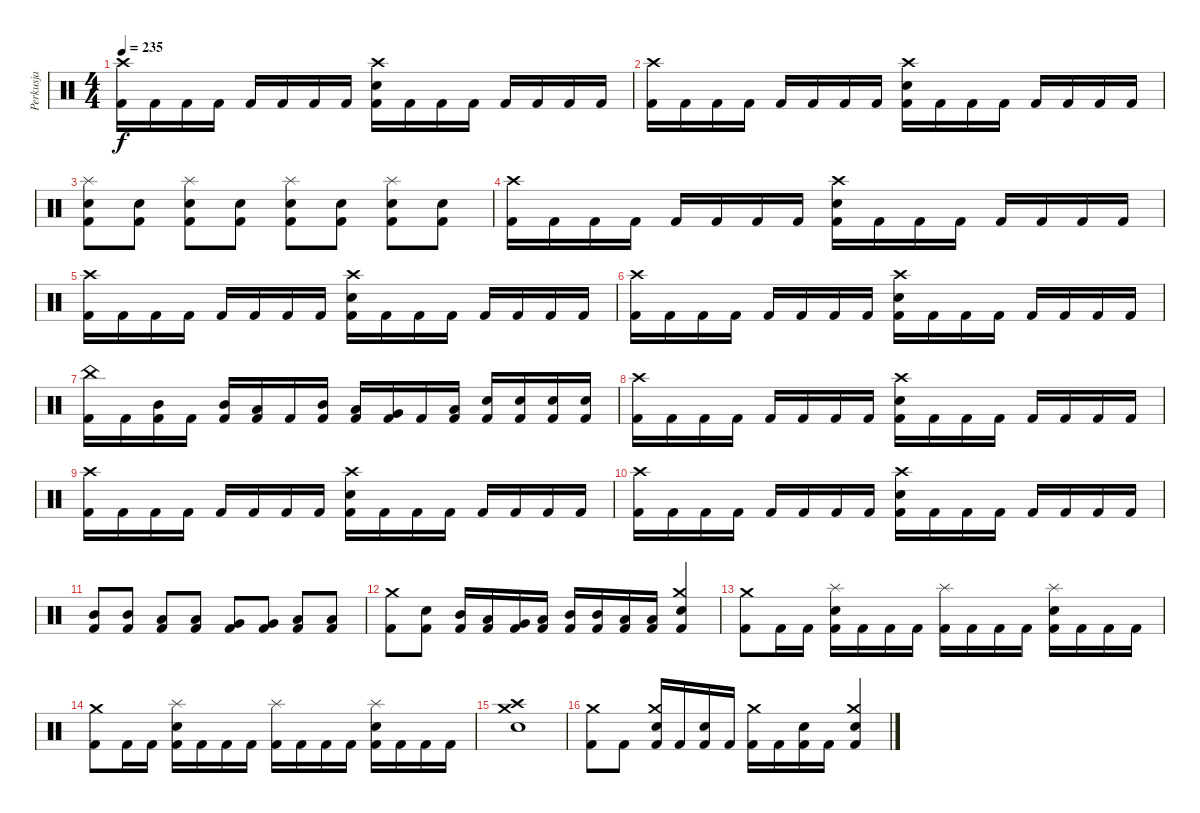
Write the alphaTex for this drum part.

\track ("Perkusja" "Perkusja") {instrument percussion}
\staff {score}
\articulation defaults
\ts (4 4)
\tempo 235
\clef neutral
\ks c
("Crash high (hit)" "Kick (hit) 2").16{dy f} "Kick (hit) 2".16 "Kick (hit) 2".16 "Kick (hit) 2".16 "Kick (hit) 2".16 "Kick (hit) 2".16 "Kick (hit) 2".16 "Kick (hit) 2".16 ("Crash high (hit)" "Snare (hit) 2" "Kick (hit) 2").16 "Kick (hit) 2".16 "Kick (hit) 2".16 "Kick (hit) 2".16 "Kick (hit) 2".16 "Kick (hit) 2".16 "Kick (hit) 2".16 "Kick (hit) 2".16 |
("Crash high (hit)" "Kick (hit) 2").16 "Kick (hit) 2".16 "Kick (hit) 2".16 "Kick (hit) 2".16 "Kick (hit) 2".16 "Kick (hit) 2".16 "Kick (hit) 2".16 "Kick (hit) 2".16 ("Crash high (hit)" "Snare (hit) 2" "Kick (hit) 2").16 "Kick (hit) 2".16 "Kick (hit) 2".16 "Kick (hit) 2".16 "Kick (hit) 2".16 "Kick (hit) 2".16 "Kick (hit) 2".16 "Kick (hit) 2".16 |
("Splash (hit)" "Snare (hit) 2" "Kick (hit) 2").8 ("Snare (hit) 2" "Kick (hit) 2").8 ("Splash (hit)" "Snare (hit) 2" "Kick (hit) 2").8 ("Snare (hit) 2" "Kick (hit) 2").8 ("Splash (hit)" "Snare (hit) 2" "Kick (hit) 2").8 ("Snare (hit) 2" "Kick (hit) 2").8 ("Splash (hit)" "Snare (hit) 2" "Kick (hit) 2").8 ("Snare (hit) 2" "Kick (hit) 2").8 |
("Crash high (hit)" "Kick (hit) 2").16 "Kick (hit) 2".16 "Kick (hit) 2".16 "Kick (hit) 2".16 "Kick (hit) 2".16 "Kick (hit) 2".16 "Kick (hit) 2".16 "Kick (hit) 2".16 ("Crash high (hit)" "Snare (hit) 2" "Kick (hit) 2").16 "Kick (hit) 2".16 "Kick (hit) 2".16 "Kick (hit) 2".16 "Kick (hit) 2".16 "Kick (hit) 2".16 "Kick (hit) 2".16 "Kick (hit) 2".16 |
("Crash high (hit)" "Kick (hit) 2").16 "Kick (hit) 2".16 "Kick (hit) 2".16 "Kick (hit) 2".16 "Kick (hit) 2".16 "Kick (hit) 2".16 "Kick (hit) 2".16 "Kick (hit) 2".16 ("Crash high (hit)" "Snare (hit) 2" "Kick (hit) 2").16 "Kick (hit) 2".16 "Kick (hit) 2".16 "Kick (hit) 2".16 "Kick (hit) 2".16 "Kick (hit) 2".16 "Kick (hit) 2".16 "Kick (hit) 2".16 |
("Crash high (hit)" "Kick (hit) 2").16 "Kick (hit) 2".16 "Kick (hit) 2".16 "Kick (hit) 2".16 "Kick (hit) 2".16 "Kick (hit) 2".16 "Kick (hit) 2".16 "Kick (hit) 2".16 ("Crash high (hit)" "Snare (hit) 2" "Kick (hit) 2").16 "Kick (hit) 2".16 "Kick (hit) 2".16 "Kick (hit) 2".16 "Kick (hit) 2".16 "Kick (hit) 2".16 "Kick (hit) 2".16 "Kick (hit) 2".16 |
("China (hit)" "Kick (hit) 2").16 "Kick (hit) 2".16 ("Mid Tom (hit)" "Kick (hit) 2").16 "Kick (hit) 2".16 ("Mid Tom (hit)" "Kick (hit) 2").16 ("Low Tom (hit)" "Kick (hit) 2").16 "Kick (hit) 2".16 ("Mid Tom (hit)" "Kick (hit) 2").16 ("Low Tom (hit)" "Kick (hit) 2").16 ("Very Low Tom (hit)" "Kick (hit) 2").16 "Kick (hit) 2".16 ("Low Floor Tom (hit)" "Kick (hit) 2").16 ("Snare (hit) 2" "Kick (hit) 2").16 ("Snare (hit) 2" "Kick (hit) 2").16 ("Snare (hit) 2" "Kick (hit) 2").16 ("Snare (hit) 2" "Kick (hit) 2").16 |
("Crash high (hit)" "Kick (hit) 2").16 "Kick (hit) 2".16 "Kick (hit) 2".16 "Kick (hit) 2".16 "Kick (hit) 2".16 "Kick (hit) 2".16 "Kick (hit) 2".16 "Kick (hit) 2".16 ("Crash high (hit)" "Snare (hit) 2" "Kick (hit) 2").16 "Kick (hit) 2".16 "Kick (hit) 2".16 "Kick (hit) 2".16 "Kick (hit) 2".16 "Kick (hit) 2".16 "Kick (hit) 2".16 "Kick (hit) 2".16 |
("Crash high (hit)" "Kick (hit) 2").16 "Kick (hit) 2".16 "Kick (hit) 2".16 "Kick (hit) 2".16 "Kick (hit) 2".16 "Kick (hit) 2".16 "Kick (hit) 2".16 "Kick (hit) 2".16 ("Crash high (hit)" "Snare (hit) 2" "Kick (hit) 2").16 "Kick (hit) 2".16 "Kick (hit) 2".16 "Kick (hit) 2".16 "Kick (hit) 2".16 "Kick (hit) 2".16 "Kick (hit) 2".16 "Kick (hit) 2".16 |
("Crash high (hit)" "Kick (hit) 2").16 "Kick (hit) 2".16 "Kick (hit) 2".16 "Kick (hit) 2".16 "Kick (hit) 2".16 "Kick (hit) 2".16 "Kick (hit) 2".16 "Kick (hit) 2".16 ("Crash high (hit)" "Snare (hit) 2" "Kick (hit) 2").16 "Kick (hit) 2".16 "Kick (hit) 2".16 "Kick (hit) 2".16 "Kick (hit) 2".16 "Kick (hit) 2".16 "Kick (hit) 2".16 "Kick (hit) 2".16 |
("Mid Tom (hit)" "Kick (hit) 2").8 ("Mid Tom (hit)" "Kick (hit) 2").8 ("Low Tom (hit)" "Kick (hit) 2").8 ("Low Tom (hit)" "Kick (hit) 2").8 ("Very Low Tom (hit)" "Kick (hit) 2").8 ("Very Low Tom (hit)" "Kick (hit) 2").8 ("Low Floor Tom (hit)" "Kick (hit) 2").8 ("Low Floor Tom (hit)" "Kick (hit) 2").8 |
("Crash medium (hit)" "Kick (hit) 2").8 ("Snare (hit) 2" "Kick (hit) 2").8 ("Mid Tom (hit)" "Kick (hit) 2").16 ("Low Tom (hit)" "Kick (hit) 2").16 ("Very Low Tom (hit)" "Kick (hit) 2").16 ("Low Floor Tom (hit)" "Kick (hit) 2").16 ("Mid Tom (hit)" "Kick (hit) 2").16 ("Mid Tom (hit)" "Kick (hit) 2").16 ("Low Tom (hit)" "Kick (hit) 2").16 ("Low Tom (hit)" "Kick (hit) 2").16 ("Crash medium (hit)" "Electric Snare (hit)" "Kick (hit) 2").4 |
("Crash medium (hit)" "Kick (hit) 2").8 "Kick (hit) 2".16 "Kick (hit) 2".16 ("Splash (hit)" "Snare (hit) 2" "Kick (hit) 2").16 "Kick (hit) 2".16 "Kick (hit) 2".16 "Kick (hit) 2".16 ("Splash (hit)" "Kick (hit) 2").16 "Kick (hit) 2".16 "Kick (hit) 2".16 "Kick (hit) 2".16 ("Splash (hit)" "Snare (hit) 2" "Kick (hit) 2").16 "Kick (hit) 2".16 "Kick (hit) 2".16 "Kick (hit) 2".16 |
("Crash medium (hit)" "Kick (hit) 2").8 "Kick (hit) 2".16 "Kick (hit) 2".16 ("Splash (hit)" "Snare (hit) 2" "Kick (hit) 2").16 "Kick (hit) 2".16 "Kick (hit) 2".16 "Kick (hit) 2".16 ("Splash (hit)" "Kick (hit) 2").16 "Kick (hit) 2".16 "Kick (hit) 2".16 "Kick (hit) 2".16 ("Splash (hit)" "Snare (hit) 2" "Kick (hit) 2").16 "Kick (hit) 2".16 "Kick (hit) 2".16 "Kick (hit) 2".16 |
("Crash medium (hit)" "Crash high (hit)" "Snare (hit) 2").1 |
("Crash medium (hit)" "Kick (hit) 2").8 "Kick (hit) 2".8 ("Crash medium (hit)" "Electric Snare (hit)" "Kick (hit) 2").16 "Kick (hit) 2".16 ("Electric Snare (hit)" "Kick (hit) 2").16 "Kick (hit) 2".16 ("Crash medium (hit)" "Kick (hit) 2").16 "Kick (hit) 2".16 ("Electric Snare (hit)" "Kick (hit) 2").16 "Kick (hit) 2".16 ("Crash medium (hit)" "Electric Snare (hit)" "Kick (hit) 2").4
